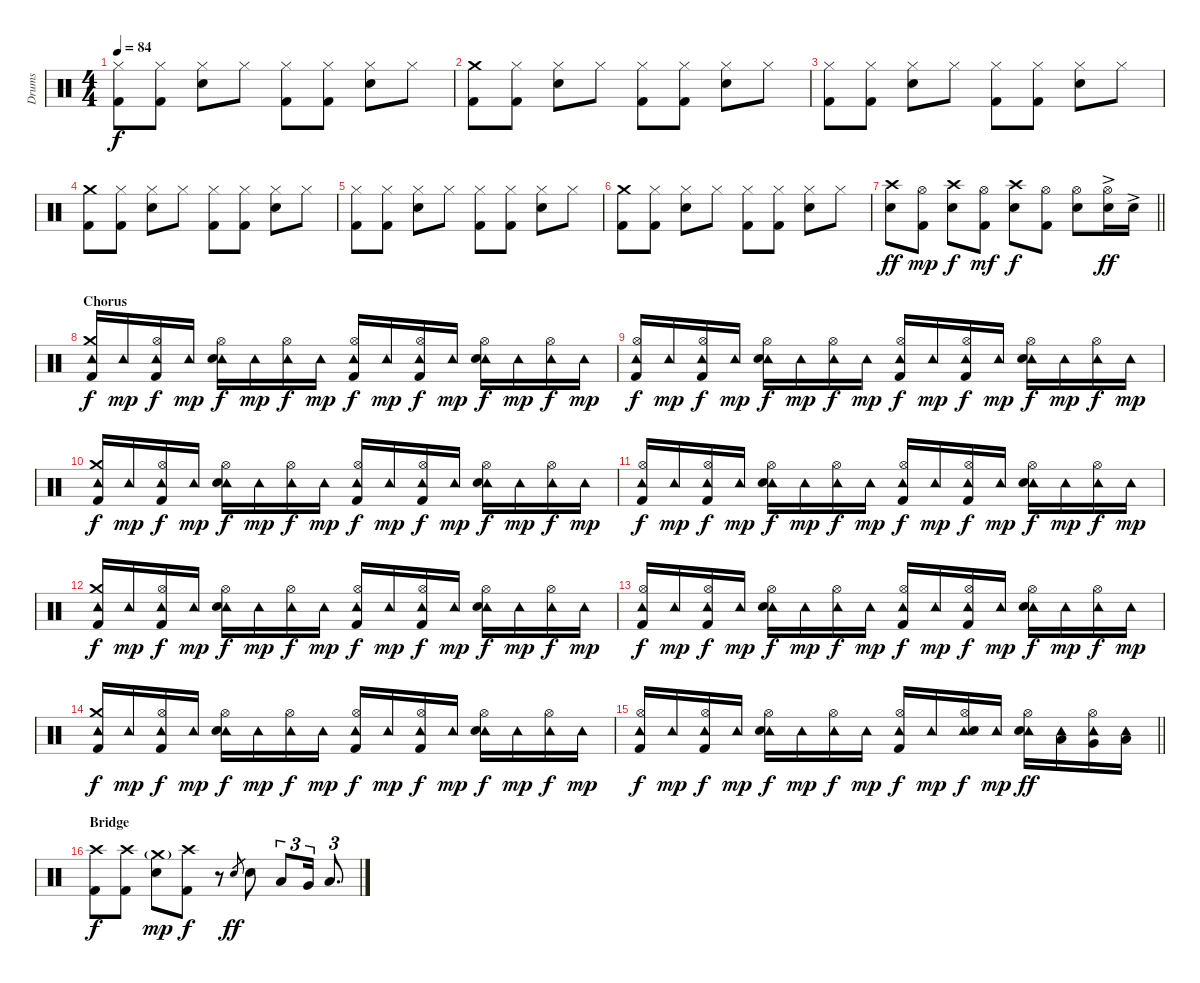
\track ("Drums" "Drums") {instrument percussion}
\staff {score}
\articulation defaults
\ts (4 4)
\tempo 84
\clef neutral
\ks c
("Hi-Hat (closed)" "Kick (hit) 2").8{dy f} ("Hi-Hat (closed)" "Kick (hit) 2").8 ("Hi-Hat (closed)" "Electric Snare (hit)").8 "Hi-Hat (closed)".8 ("Hi-Hat (closed)" "Kick (hit) 2").8 ("Hi-Hat (closed)" "Kick (hit) 2").8 ("Hi-Hat (closed)" "Electric Snare (hit)").8 "Hi-Hat (closed)".8 |
("Crash medium (hit)" "Kick (hit) 2").8 ("Hi-Hat (closed)" "Kick (hit) 2").8 ("Hi-Hat (closed)" "Electric Snare (hit)").8 "Hi-Hat (closed)".8 ("Hi-Hat (closed)" "Kick (hit) 2").8 ("Hi-Hat (closed)" "Kick (hit) 2").8 ("Hi-Hat (closed)" "Electric Snare (hit)").8 "Hi-Hat (closed)".8 |
("Hi-Hat (closed)" "Kick (hit) 2").8 ("Hi-Hat (closed)" "Kick (hit) 2").8 ("Hi-Hat (closed)" "Electric Snare (hit)").8 "Hi-Hat (closed)".8 ("Hi-Hat (closed)" "Kick (hit) 2").8 ("Hi-Hat (closed)" "Kick (hit) 2").8 ("Hi-Hat (closed)" "Electric Snare (hit)").8 "Hi-Hat (closed)".8 |
("Crash medium (hit)" "Kick (hit) 2").8 ("Hi-Hat (closed)" "Kick (hit) 2").8 ("Hi-Hat (closed)" "Electric Snare (hit)").8 "Hi-Hat (closed)".8 ("Hi-Hat (closed)" "Kick (hit) 2").8 ("Hi-Hat (closed)" "Kick (hit) 2").8 ("Hi-Hat (closed)" "Electric Snare (hit)").8 "Hi-Hat (closed)".8 |
("Hi-Hat (closed)" "Kick (hit) 2").8 ("Hi-Hat (closed)" "Kick (hit) 2").8 ("Hi-Hat (closed)" "Electric Snare (hit)").8 "Hi-Hat (closed)".8 ("Hi-Hat (closed)" "Kick (hit) 2").8 ("Hi-Hat (closed)" "Kick (hit) 2").8 ("Hi-Hat (closed)" "Electric Snare (hit)").8 "Hi-Hat (closed)".8 |
("Crash medium (hit)" "Kick (hit) 2").8 ("Hi-Hat (closed)" "Kick (hit) 2").8 ("Hi-Hat (closed)" "Electric Snare (hit)").8 "Hi-Hat (closed)".8 ("Hi-Hat (closed)" "Kick (hit) 2").8 ("Hi-Hat (closed)" "Kick (hit) 2").8 ("Hi-Hat (closed)" "Electric Snare (hit)").8 "Hi-Hat (closed)".8 |
\barLineRight lightlight
("Crash high (hit)" "Electric Snare (hit)").8{dy ff} ("Hi-Hat (open)" "Kick (hit) 2").8{dy mp} ("Crash high (hit)" "Electric Snare (hit)").8{dy f} ("Hi-Hat (open)" "Kick (hit) 2").8{dy mf} ("Crash high (hit)" "Electric Snare (hit)").8{dy f} ("Hi-Hat (open)" "Kick (hit) 2").8 ("Hi-Hat (open)" "Electric Snare (hit)").8 ("Hi-Hat (open)" "Electric Snare (hit)"{ac}).16{dy ff} "Electric Snare (hit)"{ac}.16 |
\section ("" "Chorus")
("Crash medium (hit)" "Tambourine (hit)" "Kick (hit) 2").16{dy f} "Tambourine (hit)".16{dy mp} ("Hi-Hat (open)" "Tambourine (hit)" "Kick (hit) 2").16{dy f} "Tambourine (hit)".16{dy mp} ("Hi-Hat (open)" "Tambourine (hit)" "Electric Snare (hit)").16{dy f} "Tambourine (hit)".16{dy mp} ("Hi-Hat (open)" "Tambourine (hit)").16{dy f} "Tambourine (hit)".16{dy mp} ("Hi-Hat (open)" "Tambourine (hit)" "Kick (hit) 2").16{dy f} "Tambourine (hit)".16{dy mp} ("Hi-Hat (open)" "Tambourine (hit)" "Kick (hit) 2").16{dy f} "Tambourine (hit)".16{dy mp} ("Hi-Hat (open)" "Tambourine (hit)" "Electric Snare (hit)").16{dy f} "Tambourine (hit)".16{dy mp} ("Hi-Hat (open)" "Tambourine (hit)").16{dy f} "Tambourine (hit)".16{dy mp} |
("Hi-Hat (open)" "Tambourine (hit)" "Kick (hit) 2").16{dy f} "Tambourine (hit)".16{dy mp} ("Hi-Hat (open)" "Tambourine (hit)" "Kick (hit) 2").16{dy f} "Tambourine (hit)".16{dy mp} ("Hi-Hat (open)" "Tambourine (hit)" "Electric Snare (hit)").16{dy f} "Tambourine (hit)".16{dy mp} ("Hi-Hat (open)" "Tambourine (hit)").16{dy f} "Tambourine (hit)".16{dy mp} ("Hi-Hat (open)" "Tambourine (hit)" "Kick (hit) 2").16{dy f} "Tambourine (hit)".16{dy mp} ("Hi-Hat (open)" "Tambourine (hit)" "Kick (hit) 2").16{dy f} "Tambourine (hit)".16{dy mp} ("Hi-Hat (open)" "Tambourine (hit)" "Electric Snare (hit)").16{dy f} "Tambourine (hit)".16{dy mp} ("Hi-Hat (open)" "Tambourine (hit)").16{dy f} "Tambourine (hit)".16{dy mp} |
("Crash medium (hit)" "Tambourine (hit)" "Kick (hit) 2").16{dy f} "Tambourine (hit)".16{dy mp} ("Hi-Hat (open)" "Tambourine (hit)" "Kick (hit) 2").16{dy f} "Tambourine (hit)".16{dy mp} ("Hi-Hat (open)" "Tambourine (hit)" "Electric Snare (hit)").16{dy f} "Tambourine (hit)".16{dy mp} ("Hi-Hat (open)" "Tambourine (hit)").16{dy f} "Tambourine (hit)".16{dy mp} ("Hi-Hat (open)" "Tambourine (hit)" "Kick (hit) 2").16{dy f} "Tambourine (hit)".16{dy mp} ("Hi-Hat (open)" "Tambourine (hit)" "Kick (hit) 2").16{dy f} "Tambourine (hit)".16{dy mp} ("Hi-Hat (open)" "Tambourine (hit)" "Electric Snare (hit)").16{dy f} "Tambourine (hit)".16{dy mp} ("Hi-Hat (open)" "Tambourine (hit)").16{dy f} "Tambourine (hit)".16{dy mp} |
("Hi-Hat (open)" "Tambourine (hit)" "Kick (hit) 2").16{dy f} "Tambourine (hit)".16{dy mp} ("Hi-Hat (open)" "Tambourine (hit)" "Kick (hit) 2").16{dy f} "Tambourine (hit)".16{dy mp} ("Hi-Hat (open)" "Tambourine (hit)" "Electric Snare (hit)").16{dy f} "Tambourine (hit)".16{dy mp} ("Hi-Hat (open)" "Tambourine (hit)").16{dy f} "Tambourine (hit)".16{dy mp} ("Hi-Hat (open)" "Tambourine (hit)" "Kick (hit) 2").16{dy f} "Tambourine (hit)".16{dy mp} ("Hi-Hat (open)" "Tambourine (hit)" "Kick (hit) 2").16{dy f} "Tambourine (hit)".16{dy mp} ("Hi-Hat (open)" "Tambourine (hit)" "Electric Snare (hit)").16{dy f} "Tambourine (hit)".16{dy mp} ("Hi-Hat (open)" "Tambourine (hit)").16{dy f} "Tambourine (hit)".16{dy mp} |
("Crash medium (hit)" "Tambourine (hit)" "Kick (hit) 2").16{dy f} "Tambourine (hit)".16{dy mp} ("Hi-Hat (open)" "Tambourine (hit)" "Kick (hit) 2").16{dy f} "Tambourine (hit)".16{dy mp} ("Hi-Hat (open)" "Tambourine (hit)" "Electric Snare (hit)").16{dy f} "Tambourine (hit)".16{dy mp} ("Hi-Hat (open)" "Tambourine (hit)").16{dy f} "Tambourine (hit)".16{dy mp} ("Hi-Hat (open)" "Tambourine (hit)" "Kick (hit) 2").16{dy f} "Tambourine (hit)".16{dy mp} ("Hi-Hat (open)" "Tambourine (hit)" "Kick (hit) 2").16{dy f} "Tambourine (hit)".16{dy mp} ("Hi-Hat (open)" "Tambourine (hit)" "Electric Snare (hit)").16{dy f} "Tambourine (hit)".16{dy mp} ("Hi-Hat (open)" "Tambourine (hit)").16{dy f} "Tambourine (hit)".16{dy mp} |
("Hi-Hat (open)" "Tambourine (hit)" "Kick (hit) 2").16{dy f} "Tambourine (hit)".16{dy mp} ("Hi-Hat (open)" "Tambourine (hit)" "Kick (hit) 2").16{dy f} "Tambourine (hit)".16{dy mp} ("Hi-Hat (open)" "Tambourine (hit)" "Electric Snare (hit)").16{dy f} "Tambourine (hit)".16{dy mp} ("Hi-Hat (open)" "Tambourine (hit)").16{dy f} "Tambourine (hit)".16{dy mp} ("Hi-Hat (open)" "Tambourine (hit)" "Kick (hit) 2").16{dy f} "Tambourine (hit)".16{dy mp} ("Hi-Hat (open)" "Tambourine (hit)" "Kick (hit) 2").16{dy f} "Tambourine (hit)".16{dy mp} ("Hi-Hat (open)" "Tambourine (hit)" "Electric Snare (hit)").16{dy f} "Tambourine (hit)".16{dy mp} ("Hi-Hat (open)" "Tambourine (hit)").16{dy f} "Tambourine (hit)".16{dy mp} |
("Crash medium (hit)" "Tambourine (hit)" "Kick (hit) 2").16{dy f} "Tambourine (hit)".16{dy mp} ("Hi-Hat (open)" "Tambourine (hit)" "Kick (hit) 2").16{dy f} "Tambourine (hit)".16{dy mp} ("Hi-Hat (open)" "Tambourine (hit)" "Electric Snare (hit)").16{dy f} "Tambourine (hit)".16{dy mp} ("Hi-Hat (open)" "Tambourine (hit)").16{dy f} "Tambourine (hit)".16{dy mp} ("Hi-Hat (open)" "Tambourine (hit)" "Kick (hit) 2").16{dy f} "Tambourine (hit)".16{dy mp} ("Hi-Hat (open)" "Tambourine (hit)" "Kick (hit) 2").16{dy f} "Tambourine (hit)".16{dy mp} ("Hi-Hat (open)" "Tambourine (hit)" "Electric Snare (hit)").16{dy f} "Tambourine (hit)".16{dy mp} ("Hi-Hat (open)" "Tambourine (hit)").16{dy f} "Tambourine (hit)".16{dy mp} |
\barLineRight lightlight
("Hi-Hat (open)" "Tambourine (hit)" "Kick (hit) 2").16{dy f} "Tambourine (hit)".16{dy mp} ("Hi-Hat (open)" "Tambourine (hit)" "Kick (hit) 2").16{dy f} "Tambourine (hit)".16{dy mp} ("Hi-Hat (open)" "Tambourine (hit)" "Electric Snare (hit)").16{dy f} "Tambourine (hit)".16{dy mp} ("Hi-Hat (open)" "Tambourine (hit)").16{dy f} "Tambourine (hit)".16{dy mp} ("Hi-Hat (open)" "Tambourine (hit)" "Kick (hit) 2").16{dy f} "Tambourine (hit)".16{dy mp} ("Hi-Hat (open)" "Tambourine (hit)" "Electric Snare (hit)").16{dy f} "Tambourine (hit)".16{dy mp} ("Hi-Hat (open)" "Tambourine (hit)" "Electric Snare (hit)").16{dy ff} ("Tambourine (hit)" "Low Tom (hit)").16 ("Hi-Hat (open)" "Tambourine (hit)" "Very Low Tom (hit)").16 ("Tambourine (hit)" "Low Floor Tom (hit)").16 |
\section ("" "Bridge")
("Crash high (hit)" "Kick (hit) 2").8{dy f} ("Crash high (hit)" "Kick (hit) 2").8 ("Crash medium (hit)"{g} "Electric Snare (hit)").8{dy mp} ("Crash high (hit)" "Kick (hit) 2").8{dy f} r.8 "Electric Snare (hit)".8{gr dy ff} "Electric Snare (hit)".8 "Low Tom (hit)".8{tu (3 2)} "Very Low Tom (hit)".16{tu (3 2)} "Low Floor Tom (hit)".8{d tu (3 2)}
